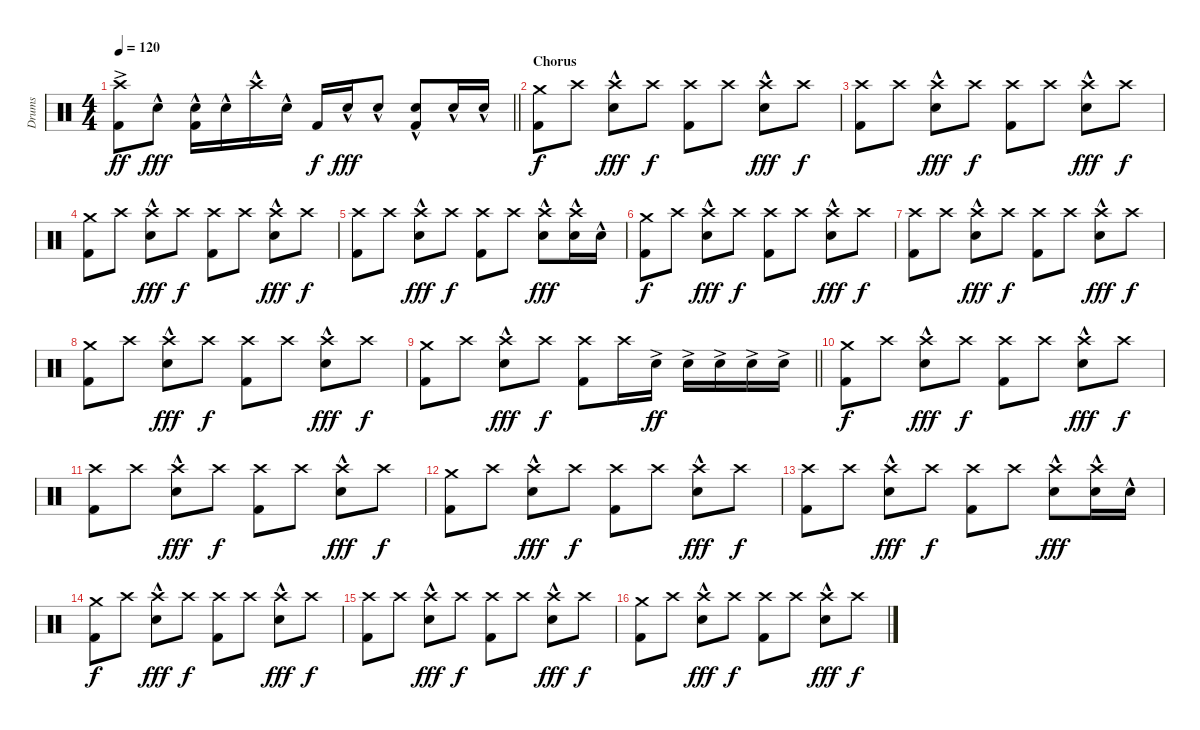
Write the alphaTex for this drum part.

\track ("Drums" "Drums") {instrument percussion}
\staff {score}
\articulation defaults
\ts (4 4)
\tempo 120
\clef neutral
\barLineRight lightlight
\ks c
("Crash high (hit)"{ac} "Kick (hit) 2").8{dy ff} "Electric Snare (hit)"{hac}.8{dy fff} ("Electric Snare (hit)"{hac} "Kick (hit) 2").16 "Electric Snare (hit)"{hac}.16 "Crash high (hit)"{hac}.16 "Electric Snare (hit)"{hac}.16 "Kick (hit) 2".16{dy f} "Electric Snare (hit)"{hac}.16{dy fff} "Electric Snare (hit)"{hac}.8 ("Electric Snare (hit)"{hac} "Kick (hit) 2").8 "Electric Snare (hit)"{hac}.16 "Electric Snare (hit)"{hac}.16 |
\section ("" "Chorus")
("Crash medium (hit)" "Kick (hit) 2").8{dy f volume 14} "Crash high (hit)".8 ("Crash high (hit)" "Electric Snare (hit)"{hac}).8{dy fff} "Crash high (hit)".8{dy f} ("Crash high (hit)" "Kick (hit) 2").8 "Crash high (hit)".8 ("Crash high (hit)" "Electric Snare (hit)"{hac}).8{dy fff} "Crash high (hit)".8{dy f} |
("Crash high (hit)" "Kick (hit) 2").8 "Crash high (hit)".8 ("Crash high (hit)" "Electric Snare (hit)"{hac}).8{dy fff} "Crash high (hit)".8{dy f} ("Crash high (hit)" "Kick (hit) 2").8 "Crash high (hit)".8 ("Crash high (hit)" "Electric Snare (hit)"{hac}).8{dy fff} "Crash high (hit)".8{dy f} |
("Crash medium (hit)" "Kick (hit) 2").8 "Crash high (hit)".8 ("Crash high (hit)" "Electric Snare (hit)"{hac}).8{dy fff} "Crash high (hit)".8{dy f} ("Crash high (hit)" "Kick (hit) 2").8 "Crash high (hit)".8 ("Crash high (hit)" "Electric Snare (hit)"{hac}).8{dy fff} "Crash high (hit)".8{dy f} |
("Crash high (hit)" "Kick (hit) 2").8 "Crash high (hit)".8 ("Crash high (hit)" "Electric Snare (hit)"{hac}).8{dy fff} "Crash high (hit)".8{dy f} ("Crash high (hit)" "Kick (hit) 2").8 "Crash high (hit)".8 ("Crash high (hit)" "Electric Snare (hit)"{hac}).8{dy fff} ("Crash high (hit)" "Electric Snare (hit)"{hac}).16 "Electric Snare (hit)"{hac}.16 |
("Crash medium (hit)" "Kick (hit) 2").8{dy f} "Crash high (hit)".8 ("Crash high (hit)" "Electric Snare (hit)"{hac}).8{dy fff} "Crash high (hit)".8{dy f} ("Crash high (hit)" "Kick (hit) 2").8 "Crash high (hit)".8 ("Crash high (hit)" "Electric Snare (hit)"{hac}).8{dy fff} "Crash high (hit)".8{dy f} |
("Crash high (hit)" "Kick (hit) 2").8 "Crash high (hit)".8 ("Crash high (hit)" "Electric Snare (hit)"{hac}).8{dy fff} "Crash high (hit)".8{dy f} ("Crash high (hit)" "Kick (hit) 2").8 "Crash high (hit)".8 ("Crash high (hit)" "Electric Snare (hit)"{hac}).8{dy fff} "Crash high (hit)".8{dy f} |
("Crash medium (hit)" "Kick (hit) 2").8 "Crash high (hit)".8 ("Crash high (hit)" "Electric Snare (hit)"{hac}).8{dy fff} "Crash high (hit)".8{dy f} ("Crash high (hit)" "Kick (hit) 2").8 "Crash high (hit)".8 ("Crash high (hit)" "Electric Snare (hit)"{hac}).8{dy fff} "Crash high (hit)".8{dy f} |
\barLineRight lightlight
("Crash medium (hit)" "Kick (hit) 2").8 "Crash high (hit)".8 ("Crash high (hit)" "Electric Snare (hit)"{hac}).8{dy fff} "Crash high (hit)".8{dy f} ("Crash high (hit)" "Kick (hit) 2").8 "Crash high (hit)".16 "Electric Snare (hit)"{ac}.16{dy ff} "Electric Snare (hit)"{ac}.16 "Electric Snare (hit)"{ac}.16 "Electric Snare (hit)"{ac}.16 "Electric Snare (hit)"{ac}.16 |
("Crash medium (hit)" "Kick (hit) 2").8{dy f volume 14} "Crash high (hit)".8 ("Crash high (hit)" "Electric Snare (hit)"{hac}).8{dy fff} "Crash high (hit)".8{dy f} ("Crash high (hit)" "Kick (hit) 2").8 "Crash high (hit)".8 ("Crash high (hit)" "Electric Snare (hit)"{hac}).8{dy fff} "Crash high (hit)".8{dy f} |
("Crash high (hit)" "Kick (hit) 2").8 "Crash high (hit)".8 ("Crash high (hit)" "Electric Snare (hit)"{hac}).8{dy fff} "Crash high (hit)".8{dy f} ("Crash high (hit)" "Kick (hit) 2").8 "Crash high (hit)".8 ("Crash high (hit)" "Electric Snare (hit)"{hac}).8{dy fff} "Crash high (hit)".8{dy f} |
("Crash medium (hit)" "Kick (hit) 2").8 "Crash high (hit)".8 ("Crash high (hit)" "Electric Snare (hit)"{hac}).8{dy fff} "Crash high (hit)".8{dy f} ("Crash high (hit)" "Kick (hit) 2").8 "Crash high (hit)".8 ("Crash high (hit)" "Electric Snare (hit)"{hac}).8{dy fff} "Crash high (hit)".8{dy f} |
("Crash high (hit)" "Kick (hit) 2").8 "Crash high (hit)".8 ("Crash high (hit)" "Electric Snare (hit)"{hac}).8{dy fff} "Crash high (hit)".8{dy f} ("Crash high (hit)" "Kick (hit) 2").8 "Crash high (hit)".8 ("Crash high (hit)" "Electric Snare (hit)"{hac}).8{dy fff} ("Crash high (hit)" "Electric Snare (hit)"{hac}).16 "Electric Snare (hit)"{hac}.16 |
("Crash medium (hit)" "Kick (hit) 2").8{dy f} "Crash high (hit)".8 ("Crash high (hit)" "Electric Snare (hit)"{hac}).8{dy fff} "Crash high (hit)".8{dy f} ("Crash high (hit)" "Kick (hit) 2").8 "Crash high (hit)".8 ("Crash high (hit)" "Electric Snare (hit)"{hac}).8{dy fff} "Crash high (hit)".8{dy f} |
("Crash high (hit)" "Kick (hit) 2").8 "Crash high (hit)".8 ("Crash high (hit)" "Electric Snare (hit)"{hac}).8{dy fff} "Crash high (hit)".8{dy f} ("Crash high (hit)" "Kick (hit) 2").8 "Crash high (hit)".8 ("Crash high (hit)" "Electric Snare (hit)"{hac}).8{dy fff} "Crash high (hit)".8{dy f} |
("Crash medium (hit)" "Kick (hit) 2").8 "Crash high (hit)".8 ("Crash high (hit)" "Electric Snare (hit)"{hac}).8{dy fff} "Crash high (hit)".8{dy f} ("Crash high (hit)" "Kick (hit) 2").8 "Crash high (hit)".8 ("Crash high (hit)" "Electric Snare (hit)"{hac}).8{dy fff} "Crash high (hit)".8{dy f}
